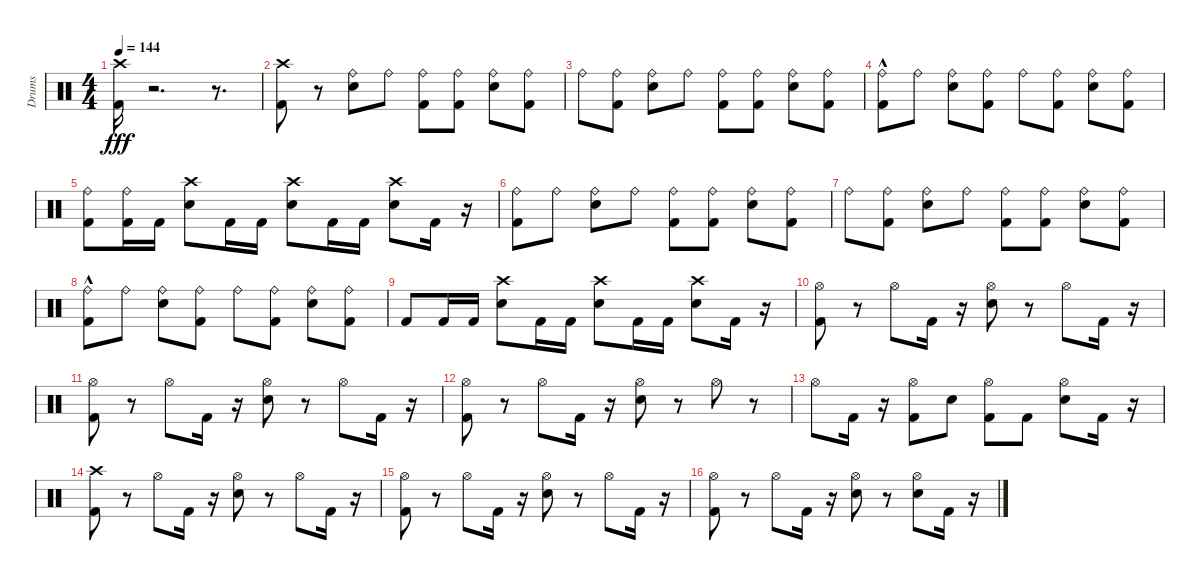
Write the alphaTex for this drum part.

\track ("Drums" "Drums") {instrument percussion}
\staff {score}
\articulation defaults
\ts (4 4)
\tempo 144
\clef neutral
\ks c
("Crash high (hit)" "Kick (hit) 2").16{dy fff} r.2{d} r.8{d} |
("Crash high (hit)" "Kick (hit) 2").8 r.8 ("Ride (bell)" "Snare (hit) 2").8 "Ride (bell)".8 ("Ride (bell)" "Kick (hit) 2").8 ("Ride (bell)" "Kick (hit) 2").8 ("Ride (bell)" "Snare (hit) 2").8 ("Ride (bell)" "Kick (hit) 2").8 |
"Ride (bell)".8 ("Ride (bell)" "Kick (hit) 2").8 ("Ride (bell)" "Snare (hit) 2").8 "Ride (bell)".8 ("Ride (bell)" "Kick (hit) 2").8 ("Ride (bell)" "Kick (hit) 2").8 ("Ride (bell)" "Snare (hit) 2").8 ("Ride (bell)" "Kick (hit) 2").8 |
("Ride (bell)" "Kick (hit) 2"{hac}).8 "Ride (bell)".8 ("Ride (bell)" "Snare (hit) 2").8 ("Ride (bell)" "Kick (hit) 2").8 "Ride (bell)".8 ("Ride (bell)" "Kick (hit) 2").8 ("Ride (bell)" "Snare (hit) 2").8 ("Ride (bell)" "Kick (hit) 2").8 |
("Ride (bell)" "Kick (hit) 2").8 ("Ride (bell)" "Kick (hit) 2").16 "Kick (hit) 2".16 ("Snare (hit) 2" "Crash high (hit)").8 "Kick (hit) 2".16 "Kick (hit) 2".16 ("Snare (hit) 2" "Crash high (hit)").8 "Kick (hit) 2".16 "Kick (hit) 2".16 ("Snare (hit) 2" "Crash high (hit)").8 "Kick (hit) 2".16 r.16 |
("Ride (bell)" "Kick (hit) 2").8 "Ride (bell)".8 ("Ride (bell)" "Snare (hit) 2").8 "Ride (bell)".8 ("Ride (bell)" "Kick (hit) 2").8 ("Ride (bell)" "Kick (hit) 2").8 ("Ride (bell)" "Snare (hit) 2").8 ("Ride (bell)" "Kick (hit) 2").8 |
"Ride (bell)".8 ("Ride (bell)" "Kick (hit) 2").8 ("Ride (bell)" "Snare (hit) 2").8 "Ride (bell)".8 ("Ride (bell)" "Kick (hit) 2").8 ("Ride (bell)" "Kick (hit) 2").8 ("Ride (bell)" "Snare (hit) 2").8 ("Ride (bell)" "Kick (hit) 2").8 |
("Kick (hit) 2"{hac} "Ride (bell)").8 "Ride (bell)".8 ("Snare (hit) 2" "Ride (bell)").8 ("Kick (hit) 2" "Ride (bell)").8 "Ride (bell)".8 ("Kick (hit) 2" "Ride (bell)").8 ("Snare (hit) 2" "Ride (bell)").8 ("Kick (hit) 2" "Ride (bell)").8 |
"Kick (hit) 2".8 "Kick (hit) 2".16 "Kick (hit) 2".16 ("Snare (hit) 2" "Crash high (hit)").8 "Kick (hit) 2".16 "Kick (hit) 2".16 ("Snare (hit) 2" "Crash high (hit)").8 "Kick (hit) 2".16 "Kick (hit) 2".16 ("Snare (hit) 2" "Crash high (hit)").8 "Kick (hit) 2".16 r.16 |
("Kick (hit) 2" "Hi-Hat (open)").8 r.8 "Hi-Hat (open)".8 "Kick (hit) 2".16 r.16 ("Snare (hit) 2" "Hi-Hat (open)").8 r.8 "Hi-Hat (open)".8 "Kick (hit) 2".16 r.16 |
("Kick (hit) 2" "Hi-Hat (open)").8 r.8 "Hi-Hat (open)".8 "Kick (hit) 2".16 r.16 ("Snare (hit) 2" "Hi-Hat (open)").8 r.8 "Hi-Hat (open)".8 "Kick (hit) 2".16 r.16 |
("Kick (hit) 2" "Hi-Hat (open)").8 r.8 "Hi-Hat (open)".8 "Kick (hit) 2".16 r.16 ("Snare (hit) 2" "Hi-Hat (open)").8 r.8 "Hi-Hat (open)".8 r.8 |
"Hi-Hat (open)".8 "Kick (hit) 2".16 r.16 ("Kick (hit) 2" "Hi-Hat (open)").8 "Snare (hit) 2".8 ("Kick (hit) 2" "Hi-Hat (open)").8 "Kick (hit) 2".8 ("Snare (hit) 2" "Hi-Hat (open)").8 "Kick (hit) 2".16 r.16 |
("Kick (hit) 2" "Crash high (hit)").8 r.8 "Hi-Hat (open)".8 "Kick (hit) 2".16 r.16 ("Snare (hit) 2" "Hi-Hat (open)").8 r.8 "Hi-Hat (open)".8 "Kick (hit) 2".16 r.16 |
("Kick (hit) 2" "Hi-Hat (open)").8 r.8 "Hi-Hat (open)".8 "Kick (hit) 2".16 r.16 ("Snare (hit) 2" "Hi-Hat (open)").8 r.8 "Hi-Hat (open)".8 "Kick (hit) 2".16 r.16 |
("Kick (hit) 2" "Hi-Hat (open)").8 r.8 "Hi-Hat (open)".8 "Kick (hit) 2".16 r.16 ("Snare (hit) 2" "Hi-Hat (open)").8 r.8 ("Hi-Hat (open)" "Snare (hit) 2").8 "Kick (hit) 2".16 r.16
